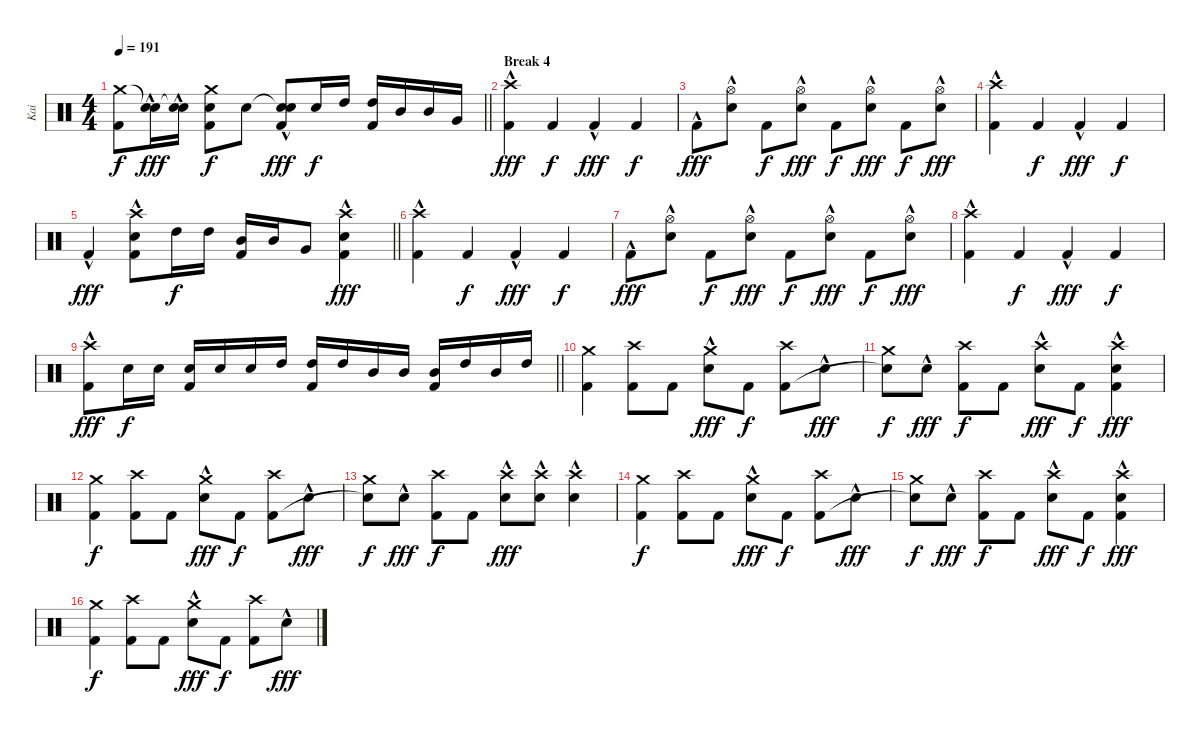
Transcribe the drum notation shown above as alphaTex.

\track ("Kai" "Kai") {instrument percussion}
\staff {score}
\articulation defaults
\ts (4 4)
\tempo 191
\clef neutral
\barLineRight lightlight
\ks c
("Crash medium (hit)" "Kick (hit) 2").8{dy f} ("Snare (hit)"{t} "Snare (hit) 2"{hac}).16{dy fff} ("Snare (hit)"{t} "Snare (hit) 2"{hac}).16 ("Crash medium (hit)" "Snare (hit) 2" "Kick (hit) 2").8{dy f} "Snare (hit) 2".8 ("Snare (hit)"{t} "Snare (hit) 2"{hac} "Kick (hit) 2").8{dy fff} "Snare (hit) 2".16{dy f} "High Tom (hit)".16 ("High Tom (hit)" "Kick (hit) 2").16 "Mid Tom (hit)".16 "Mid Tom (hit)".16 "Very Low Tom (hit)".16 |
\section ("" "Break 4")
("Crash high (hit)" "Kick (hit) 2"{hac}).4{dy fff} "Kick (hit) 2".4{dy f} "Kick (hit) 2"{hac}.4{dy fff} "Kick (hit) 2".4{dy f} |
"Kick (hit) 2"{hac}.8{dy fff} ("Hi-Hat (open)" "Snare (hit) 2"{hac}).8 "Kick (hit) 2".8{dy f} ("Hi-Hat (open)" "Snare (hit) 2"{hac}).8{dy fff} "Kick (hit) 2".8{dy f} ("Hi-Hat (open)" "Snare (hit) 2"{hac}).8{dy fff} "Kick (hit) 2".8{dy f} ("Hi-Hat (open)" "Snare (hit) 2"{hac}).8{dy fff} |
("Crash high (hit)" "Kick (hit) 2"{hac}).4 "Kick (hit) 2".4{dy f} "Kick (hit) 2"{hac}.4{dy fff} "Kick (hit) 2".4{dy f} |
\barLineRight lightlight "Kick (hit) 2"{hac}.4{dy fff}
("Crash high (hit)" "Snare (hit) 2"{hac} "Kick (hit) 2").8 "High Tom (hit)".16{dy f} "High Tom (hit)".16 ("Mid Tom (hit)" "Kick (hit) 2").16 "Mid Tom (hit)".16 "Very Low Tom (hit)".8 ("Crash high (hit)" "Snare (hit) 2"{hac} "Kick (hit) 2").4{dy fff} |
("Crash high (hit)" "Kick (hit) 2"{hac}).4 "Kick (hit) 2".4{dy f} "Kick (hit) 2"{hac}.4{dy fff} "Kick (hit) 2".4{dy f} |
"Kick (hit) 2"{hac}.8{dy fff} ("Hi-Hat (open)" "Snare (hit) 2"{hac}).8 "Kick (hit) 2".8{dy f} ("Hi-Hat (open)" "Snare (hit) 2"{hac}).8{dy fff} "Kick (hit) 2".8{dy f} ("Hi-Hat (open)" "Snare (hit) 2"{hac}).8{dy fff} "Kick (hit) 2".8{dy f} ("Hi-Hat (open)" "Snare (hit) 2"{hac}).8{dy fff} |
("Crash high (hit)" "Kick (hit) 2"{hac}).4 "Kick (hit) 2".4{dy f} "Kick (hit) 2"{hac}.4{dy fff} "Kick (hit) 2".4{dy f} |
\barLineRight lightlight
("Crash high (hit)" "Kick (hit) 2"{hac}).8{dy fff} "Snare (hit) 2".16{dy f} "Snare (hit) 2".16 ("Snare (hit) 2" "Kick (hit) 2").16 "Snare (hit) 2".16 "Snare (hit) 2".16 "High Tom (hit)".16 ("High Tom (hit)" "Kick (hit) 2").16 "High Tom (hit)".16 "Mid Tom (hit)".16 "Mid Tom (hit)".16 ("Mid Tom (hit)" "Kick (hit) 2").16 "High Tom (hit)".16 "Mid Tom (hit)".16 "High Tom (hit)".16 |
\section ("" "")
("Crash medium (hit)" "Kick (hit) 2").4 ("Crash high (hit)" "Kick (hit) 2").8 "Kick (hit) 2".8 ("Crash medium (hit)" "Snare (hit) 2"{hac}).8{dy fff} "Kick (hit) 2".8{dy f} ("Crash high (hit)" "Kick (hit) 2").8 "Snare (hit) 2"{hac}.8{dy fff} |
("Crash medium (hit)" "Snare (hit)"{t}).8{dy f} "Snare (hit) 2"{hac}.8{dy fff} ("Crash high (hit)" "Kick (hit) 2").8{dy f} "Kick (hit) 2".8 ("Crash high (hit)" "Snare (hit) 2"{hac}).8{dy fff} "Kick (hit) 2".8{dy f} ("Crash high (hit)" "Snare (hit) 2"{hac} "Kick (hit) 2").4{dy fff} |
("Crash medium (hit)" "Kick (hit) 2").4{dy f} ("Crash high (hit)" "Kick (hit) 2").8 "Kick (hit) 2".8 ("Crash medium (hit)" "Snare (hit) 2"{hac}).8{dy fff} "Kick (hit) 2".8{dy f} ("Crash high (hit)" "Kick (hit) 2").8 "Snare (hit) 2"{hac}.8{dy fff} |
("Crash medium (hit)" "Snare (hit)"{t}).8{dy f} "Snare (hit) 2"{hac}.8{dy fff} ("Crash high (hit)" "Kick (hit) 2").8{dy f} "Kick (hit) 2".8 ("Crash high (hit)" "Snare (hit) 2"{hac}).8{dy fff} ("Crash high (hit)" "Snare (hit) 2"{hac}).8 ("Crash high (hit)" "Snare (hit) 2"{hac}).4 |
("Crash medium (hit)" "Kick (hit) 2").4{dy f} ("Crash high (hit)" "Kick (hit) 2").8 "Kick (hit) 2".8 ("Crash medium (hit)" "Snare (hit) 2"{hac}).8{dy fff} "Kick (hit) 2".8{dy f} ("Crash high (hit)" "Kick (hit) 2").8 "Snare (hit) 2"{hac}.8{dy fff} |
("Crash medium (hit)" "Snare (hit)"{t}).8{dy f} "Snare (hit) 2"{hac}.8{dy fff} ("Crash high (hit)" "Kick (hit) 2").8{dy f} "Kick (hit) 2".8 ("Crash high (hit)" "Snare (hit) 2"{hac}).8{dy fff} "Kick (hit) 2".8{dy f} ("Crash high (hit)" "Snare (hit) 2"{hac} "Kick (hit) 2").4{dy fff} |
("Crash medium (hit)" "Kick (hit) 2").4{dy f} ("Crash high (hit)" "Kick (hit) 2").8 "Kick (hit) 2".8 ("Crash medium (hit)" "Snare (hit) 2"{hac}).8{dy fff} "Kick (hit) 2".8{dy f} ("Crash high (hit)" "Kick (hit) 2").8 "Snare (hit) 2"{hac}.8{dy fff}
